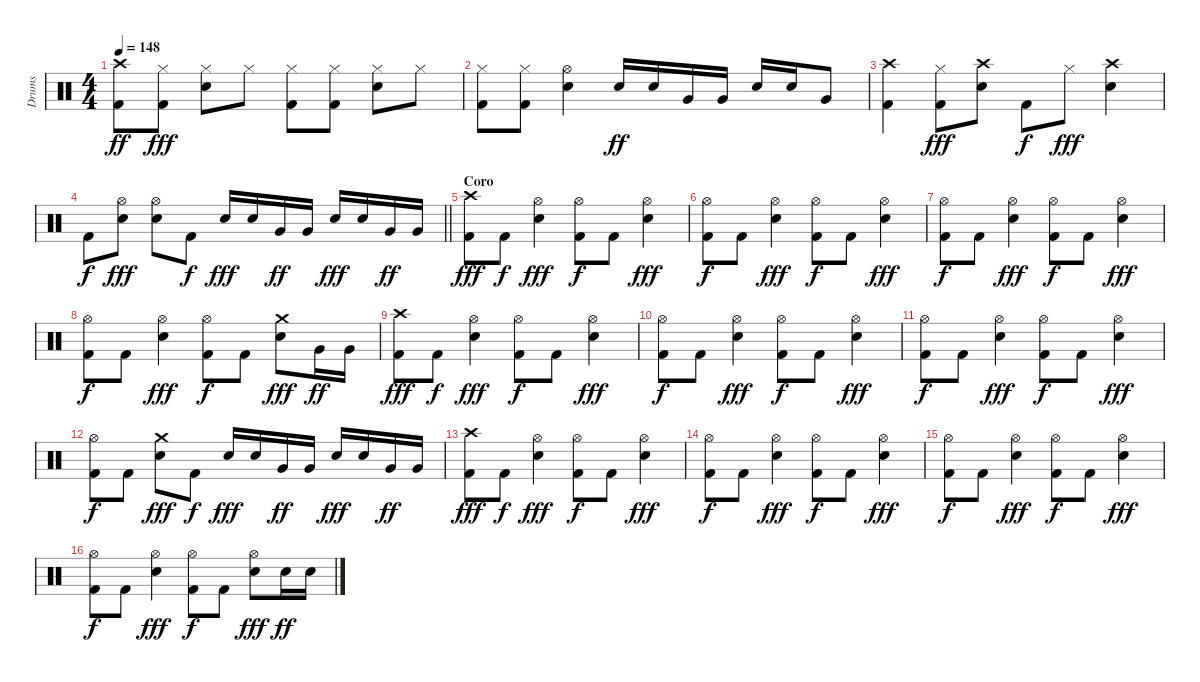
\track ("Drums" "Drums") {instrument percussion}
\staff {score}
\articulation defaults
\ts (4 4)
\tempo 148
\clef neutral
\ks c
("Crash high (hit)" "Kick (hit) 2").8{dy ff} ("Hi-Hat (closed)" "Kick (hit) 2").8{dy fff} ("Hi-Hat (closed)" "Electric Snare (hit)").8 "Hi-Hat (closed)".8 ("Hi-Hat (closed)" "Kick (hit) 2").8 ("Hi-Hat (closed)" "Kick (hit) 2").8 ("Hi-Hat (closed)" "Electric Snare (hit)").8 "Hi-Hat (closed)".8 |
("Hi-Hat (closed)" "Kick (hit) 2").8 ("Hi-Hat (closed)" "Kick (hit) 2").8 ("Hi-Hat (open)" "Electric Snare (hit)").4 "Electric Snare (hit)".16{dy ff} "Electric Snare (hit)".16 "Very Low Tom (hit)".16 "Very Low Tom (hit)".16 "Electric Snare (hit)".16 "Electric Snare (hit)".16 "Very Low Tom (hit)".8 |
("Crash high (hit)" "Kick (hit) 2").4 ("Hi-Hat (closed)" "Kick (hit) 2").8{dy fff} ("Crash high (hit)" "Electric Snare (hit)").8 "Kick (hit) 2".8{dy f} "Hi-Hat (closed)".8{dy fff} ("Crash high (hit)" "Electric Snare (hit)").4 |
\barLineRight lightlight "Kick (hit) 2".8{dy f}
("Hi-Hat (open)" "Electric Snare (hit)").8{dy fff} ("Hi-Hat (open)" "Electric Snare (hit)").8 "Kick (hit) 2".8{dy f} "Electric Snare (hit)".16{dy fff} "Electric Snare (hit)".16 "Very Low Tom (hit)".16{dy ff} "Very Low Tom (hit)".16 "Electric Snare (hit)".16{dy fff} "Electric Snare (hit)".16 "Very Low Tom (hit)".16{dy ff} "Very Low Tom (hit)".16 |
\section ("" "Coro")
("Crash high (hit)" "Kick (hit) 2").8{dy fff} "Kick (hit) 2".8{dy f} ("Hi-Hat (open)" "Electric Snare (hit)").4{dy fff} ("Hi-Hat (open)" "Kick (hit) 2").8{dy f} "Kick (hit) 2".8 ("Hi-Hat (open)" "Electric Snare (hit)").4{dy fff} |
("Hi-Hat (open)" "Kick (hit) 2").8{dy f} "Kick (hit) 2".8 ("Hi-Hat (open)" "Electric Snare (hit)").4{dy fff} ("Hi-Hat (open)" "Kick (hit) 2").8{dy f} "Kick (hit) 2".8 ("Hi-Hat (open)" "Electric Snare (hit)").4{dy fff} |
("Hi-Hat (open)" "Kick (hit) 2").8{dy f} "Kick (hit) 2".8 ("Hi-Hat (open)" "Electric Snare (hit)").4{dy fff} ("Hi-Hat (open)" "Kick (hit) 2").8{dy f} "Kick (hit) 2".8 ("Hi-Hat (open)" "Electric Snare (hit)").4{dy fff} |
("Hi-Hat (open)" "Kick (hit) 2").8{dy f} "Kick (hit) 2".8 ("Hi-Hat (open)" "Electric Snare (hit)").4{dy fff} ("Hi-Hat (open)" "Kick (hit) 2").8{dy f} "Kick (hit) 2".8 ("Crash medium (hit)" "Electric Snare (hit)").8{dy fff} "Very Low Tom (hit)".16{dy ff} "Very Low Tom (hit)".16 |
("Crash high (hit)" "Kick (hit) 2").8{dy fff} "Kick (hit) 2".8{dy f} ("Hi-Hat (open)" "Electric Snare (hit)").4{dy fff} ("Hi-Hat (open)" "Kick (hit) 2").8{dy f} "Kick (hit) 2".8 ("Hi-Hat (open)" "Electric Snare (hit)").4{dy fff} |
("Hi-Hat (open)" "Kick (hit) 2").8{dy f} "Kick (hit) 2".8 ("Hi-Hat (open)" "Electric Snare (hit)").4{dy fff} ("Hi-Hat (open)" "Kick (hit) 2").8{dy f} "Kick (hit) 2".8 ("Hi-Hat (open)" "Electric Snare (hit)").4{dy fff} |
("Hi-Hat (open)" "Kick (hit) 2").8{dy f} "Kick (hit) 2".8 ("Hi-Hat (open)" "Electric Snare (hit)").4{dy fff} ("Hi-Hat (open)" "Kick (hit) 2").8{dy f} "Kick (hit) 2".8 ("Hi-Hat (open)" "Electric Snare (hit)").4{dy fff} |
("Hi-Hat (open)" "Kick (hit) 2").8{dy f} "Kick (hit) 2".8 ("Crash medium (hit)" "Electric Snare (hit)").8{dy fff} "Kick (hit) 2".8{dy f} "Electric Snare (hit)".16{dy fff} "Electric Snare (hit)".16 "Very Low Tom (hit)".16{dy ff} "Very Low Tom (hit)".16 "Electric Snare (hit)".16{dy fff} "Electric Snare (hit)".16 "Very Low Tom (hit)".16{dy ff} "Very Low Tom (hit)".16 |
("Crash high (hit)" "Kick (hit) 2").8{dy fff} "Kick (hit) 2".8{dy f} ("Hi-Hat (open)" "Electric Snare (hit)").4{dy fff} ("Hi-Hat (open)" "Kick (hit) 2").8{dy f} "Kick (hit) 2".8 ("Hi-Hat (open)" "Electric Snare (hit)").4{dy fff} |
("Hi-Hat (open)" "Kick (hit) 2").8{dy f} "Kick (hit) 2".8 ("Hi-Hat (open)" "Electric Snare (hit)").4{dy fff} ("Hi-Hat (open)" "Kick (hit) 2").8{dy f} "Kick (hit) 2".8 ("Hi-Hat (open)" "Electric Snare (hit)").4{dy fff} |
("Hi-Hat (open)" "Kick (hit) 2").8{dy f} "Kick (hit) 2".8 ("Hi-Hat (open)" "Electric Snare (hit)").4{dy fff} ("Hi-Hat (open)" "Kick (hit) 2").8{dy f} "Kick (hit) 2".8 ("Hi-Hat (open)" "Electric Snare (hit)").4{dy fff} |
("Hi-Hat (open)" "Kick (hit) 2").8{dy f} "Kick (hit) 2".8 ("Hi-Hat (open)" "Electric Snare (hit)").4{dy fff} ("Hi-Hat (open)" "Kick (hit) 2").8{dy f} "Kick (hit) 2".8 ("Hi-Hat (open)" "Electric Snare (hit)").8{dy fff} "Electric Snare (hit)".16{dy ff} "Electric Snare (hit)".16
